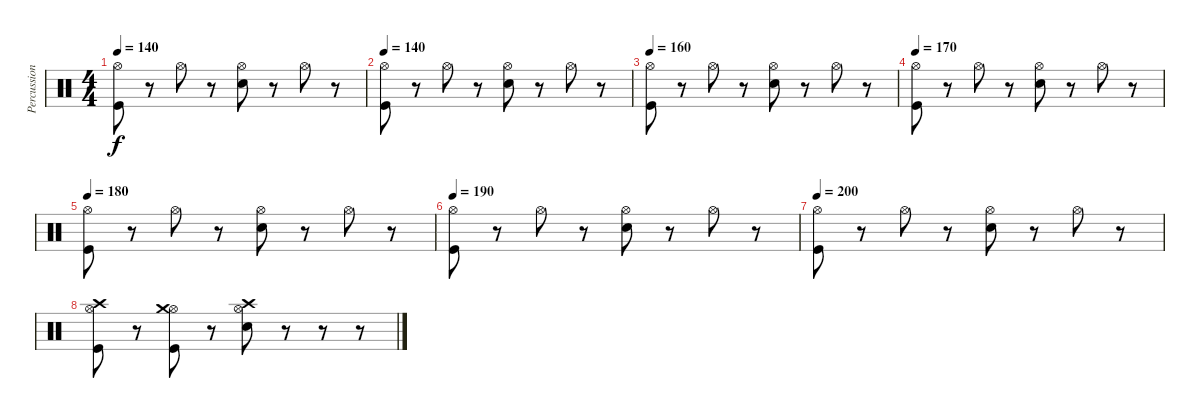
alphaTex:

\track ("Percussion" "Percussion") {instrument percussion}
\staff {score}
\articulation defaults
\ts (4 4)
\tempo 140
\clef neutral
\ks c
("Hi-Hat (open)" "Kick (hit)").8{dy f} r.8 "Hi-Hat (open)".8 r.8 ("Hi-Hat (open)" "Snare (hit) 2").8 r.8 "Hi-Hat (open)".8 r.8 |
\tempo 140
("Hi-Hat (open)" "Kick (hit)").8 r.8 "Hi-Hat (open)".8 r.8 ("Hi-Hat (open)" "Snare (hit) 2").8 r.8 "Hi-Hat (open)".8 r.8 |
\tempo 160
("Hi-Hat (open)" "Kick (hit)").8 r.8 "Hi-Hat (open)".8 r.8 ("Hi-Hat (open)" "Snare (hit) 2").8 r.8 "Hi-Hat (open)".8 r.8 |
\tempo 170
("Hi-Hat (open)" "Kick (hit)").8 r.8 "Hi-Hat (open)".8 r.8 ("Hi-Hat (open)" "Snare (hit) 2").8 r.8 "Hi-Hat (open)".8 r.8 |
\tempo 180
("Hi-Hat (open)" "Kick (hit)").8 r.8 "Hi-Hat (open)".8 r.8 ("Hi-Hat (open)" "Snare (hit) 2").8 r.8 "Hi-Hat (open)".8 r.8 |
\tempo 190
("Hi-Hat (open)" "Kick (hit)").8 r.8 "Hi-Hat (open)".8 r.8 ("Hi-Hat (open)" "Snare (hit) 2").8 r.8 "Hi-Hat (open)".8 r.8 |
\tempo 200
("Hi-Hat (open)" "Kick (hit)").8 r.8 "Hi-Hat (open)".8 r.8 ("Hi-Hat (open)" "Snare (hit) 2").8 r.8 "Hi-Hat (open)".8 r.8 |
("Hi-Hat (open)" "Kick (hit)" "Crash high (hit)").8 r.8 ("Hi-Hat (open)" "Kick (hit)" "Crash medium (hit)").8 r.8 ("Hi-Hat (open)" "Snare (hit) 2" "Crash high (hit)").8 r.8 r.8 r.8
